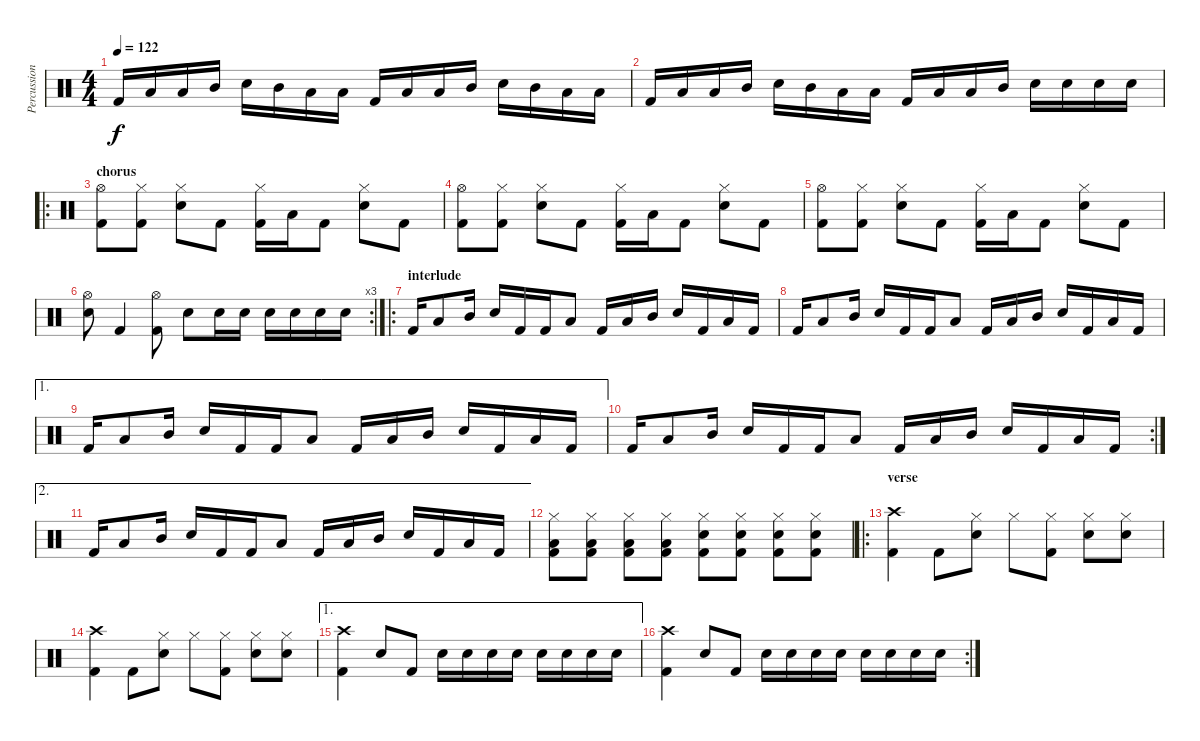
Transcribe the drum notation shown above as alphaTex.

\track ("Percussion" "Percussion") {instrument percussion}
\staff {score}
\articulation defaults
\ts (4 4)
\tempo 122
\clef neutral
\ks c "Kick (hit) 2".16{dy f} "Low Tom (hit)".16 "Low Tom (hit)".16 "Mid Tom (hit)".16 "Electric Snare (hit)".16 "Mid Tom (hit)".16 "Low Tom (hit)".16 "Low Tom (hit)".16 "Kick (hit) 2".16 "Low Tom (hit)".16 "Low Tom (hit)".16 "Mid Tom (hit)".16 "Electric Snare (hit)".16 "Mid Tom (hit)".16 "Low Tom (hit)".16 "Low Tom (hit)".16
|
"Kick (hit) 2".16 "Low Tom (hit)".16 "Low Tom (hit)".16 "Mid Tom (hit)".16 "Electric Snare (hit)".16 "Mid Tom (hit)".16 "Low Tom (hit)".16 "Low Tom (hit)".16 "Kick (hit) 2".16 "Low Tom (hit)".16 "Low Tom (hit)".16 "Mid Tom (hit)".16 "Electric Snare (hit)".16 "Electric Snare (hit)".16 "Electric Snare (hit)".16 "Electric Snare (hit)".16 |
\ro
\section ("" "chorus")
("Hi-Hat (open)" "Kick (hit) 2").8 ("Hi-Hat (closed)" "Kick (hit) 2").8 ("Hi-Hat (closed)" "Electric Snare (hit)").8 "Kick (hit) 2".8 ("Hi-Hat (closed)" "Kick (hit) 2").16 "Low Tom (hit)".16 "Kick (hit) 2".8 ("Hi-Hat (closed)" "Electric Snare (hit)").8 "Kick (hit) 2".8 |
("Hi-Hat (open)" "Kick (hit) 2").8 ("Hi-Hat (closed)" "Kick (hit) 2").8 ("Hi-Hat (closed)" "Electric Snare (hit)").8 "Kick (hit) 2".8 ("Hi-Hat (closed)" "Kick (hit) 2").16 "Low Tom (hit)".16 "Kick (hit) 2".8 ("Hi-Hat (closed)" "Electric Snare (hit)").8 "Kick (hit) 2".8 |
("Hi-Hat (open)" "Kick (hit) 2").8 ("Hi-Hat (closed)" "Kick (hit) 2").8 ("Hi-Hat (closed)" "Electric Snare (hit)").8 "Kick (hit) 2".8 ("Hi-Hat (closed)" "Kick (hit) 2").16 "Low Tom (hit)".16 "Kick (hit) 2".8 ("Hi-Hat (closed)" "Electric Snare (hit)").8 "Kick (hit) 2".8 |
\rc 3
("Hi-Hat (open)" "Electric Snare (hit)").8 "Kick (hit) 2".4 ("Hi-Hat (open)" "Kick (hit) 2").8 "Electric Snare (hit)".8 "Electric Snare (hit)".16 "Electric Snare (hit)".16 "Electric Snare (hit)".16 "Electric Snare (hit)".16 "Electric Snare (hit)".16 "Electric Snare (hit)".16 |
\ro
\section ("" "interlude")
"Kick (hit) 2".16 "Low Tom (hit)".8 "Mid Tom (hit)".16 "Electric Snare (hit)".16 "Kick (hit) 2".16 "Kick (hit) 2".16 "Low Tom (hit)".8 "Kick (hit) 2".16 "Low Tom (hit)".16 "Mid Tom (hit)".16 "Electric Snare (hit)".16 "Kick (hit) 2".16 "Low Tom (hit)".16 "Kick (hit) 2".16 |
"Kick (hit) 2".16 "Low Tom (hit)".8 "Mid Tom (hit)".16 "Electric Snare (hit)".16 "Kick (hit) 2".16 "Kick (hit) 2".16 "Low Tom (hit)".8 "Kick (hit) 2".16 "Low Tom (hit)".16 "Mid Tom (hit)".16 "Electric Snare (hit)".16 "Kick (hit) 2".16 "Low Tom (hit)".16 "Kick (hit) 2".16 |
\ae 1 "Kick (hit) 2".16 "Low Tom (hit)".8 "Mid Tom (hit)".16 "Electric Snare (hit)".16 "Kick (hit) 2".16 "Kick (hit) 2".16 "Low Tom (hit)".8 "Kick (hit) 2".16 "Low Tom (hit)".16 "Mid Tom (hit)".16 "Electric Snare (hit)".16 "Kick (hit) 2".16 "Low Tom (hit)".16 "Kick (hit) 2".16
|
\rc 2 "Kick (hit) 2".16 "Low Tom (hit)".8 "Mid Tom (hit)".16 "Electric Snare (hit)".16 "Kick (hit) 2".16 "Kick (hit) 2".16 "Low Tom (hit)".8 "Kick (hit) 2".16 "Low Tom (hit)".16 "Mid Tom (hit)".16 "Electric Snare (hit)".16 "Kick (hit) 2".16 "Low Tom (hit)".16 "Kick (hit) 2".16
|
\ae 2 "Kick (hit) 2".16 "Low Tom (hit)".8 "Mid Tom (hit)".16 "Electric Snare (hit)".16 "Kick (hit) 2".16 "Kick (hit) 2".16 "Low Tom (hit)".8 "Kick (hit) 2".16 "Low Tom (hit)".16 "Mid Tom (hit)".16 "Electric Snare (hit)".16 "Kick (hit) 2".16 "Low Tom (hit)".16 "Kick (hit) 2".16
|
("Hi-Hat (closed)" "Low Tom (hit)" "Kick (hit) 2").8 ("Hi-Hat (closed)" "Low Tom (hit)" "Kick (hit) 2").8 ("Hi-Hat (closed)" "Low Tom (hit)" "Kick (hit) 2").8 ("Hi-Hat (closed)" "Low Tom (hit)" "Kick (hit) 2").8 ("Hi-Hat (closed)" "Electric Snare (hit)" "Kick (hit) 2").8 ("Hi-Hat (closed)" "Electric Snare (hit)" "Kick (hit) 2").8 ("Hi-Hat (closed)" "Electric Snare (hit)" "Kick (hit) 2").8 ("Hi-Hat (closed)" "Electric Snare (hit)" "Kick (hit) 2").8 |
\ro
\section ("" "verse")
("Crash high (hit)" "Kick (hit) 2").4 "Kick (hit) 2".8 ("Hi-Hat (closed)" "Electric Snare (hit)").8 "Hi-Hat (closed)".8 ("Hi-Hat (closed)" "Kick (hit) 2").8 ("Hi-Hat (closed)" "Electric Snare (hit)").8 ("Hi-Hat (closed)" "Electric Snare (hit)").8 |
("Crash high (hit)" "Kick (hit) 2").4 "Kick (hit) 2".8 ("Hi-Hat (closed)" "Electric Snare (hit)").8 "Hi-Hat (closed)".8 ("Hi-Hat (closed)" "Kick (hit) 2").8 ("Hi-Hat (closed)" "Electric Snare (hit)").8 ("Hi-Hat (closed)" "Electric Snare (hit)").8 |
\ae 1
("Crash high (hit)" "Kick (hit) 2").4 "Electric Snare (hit)".8 "Kick (hit) 2".8 "Electric Snare (hit)".16 "Electric Snare (hit)".16 "Electric Snare (hit)".16 "Electric Snare (hit)".16 "Electric Snare (hit)".16 "Electric Snare (hit)".16 "Electric Snare (hit)".16 "Electric Snare (hit)".16 |
\rc 2
("Crash high (hit)" "Kick (hit) 2").4 "Electric Snare (hit)".8 "Kick (hit) 2".8 "Electric Snare (hit)".16 "Electric Snare (hit)".16 "Electric Snare (hit)".16 "Electric Snare (hit)".16 "Electric Snare (hit)".16 "Electric Snare (hit)".16 "Electric Snare (hit)".16 "Electric Snare (hit)".16
